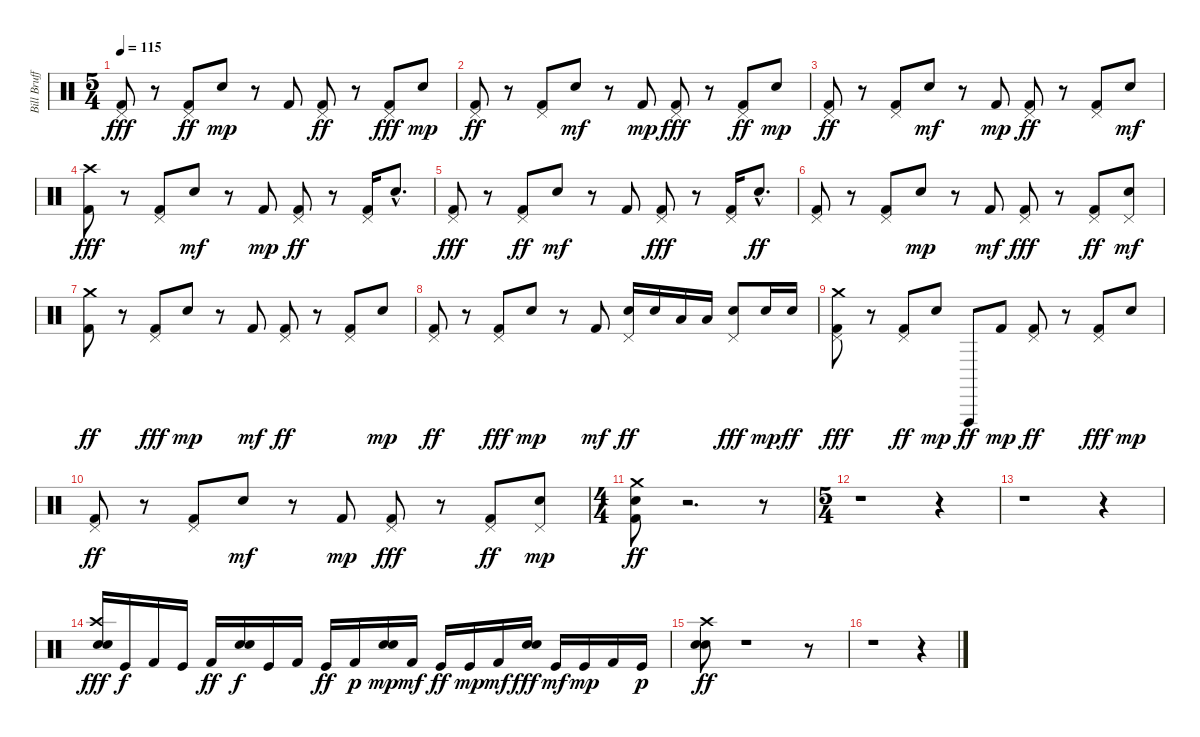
\track ("Bill Brufford Drums" "Bill Bruff") {instrument percussion}
\staff {score}
\articulation defaults
\ts (5 4)
\tempo 115
\clef neutral
\ks c
("Pedal Hi-Hat (hit)" "Kick (hit) 2").8{dy fff} r.8 ("Pedal Hi-Hat (hit)" "Kick (hit) 2").8{dy ff} "Electric Snare (hit)".8{dy mp} r.8 "Kick (hit) 2".8 ("Pedal Hi-Hat (hit)" "Kick (hit) 2").8{dy ff} r.8 ("Pedal Hi-Hat (hit)" "Kick (hit) 2").8{dy fff} "Electric Snare (hit)".8{dy mp} |
("Pedal Hi-Hat (hit)" "Kick (hit) 2").8{dy ff} r.8 ("Pedal Hi-Hat (hit)" "Kick (hit) 2").8 "Electric Snare (hit)".8{dy mf} r.8 "Kick (hit) 2".8{dy mp} ("Pedal Hi-Hat (hit)" "Kick (hit) 2").8{dy fff} r.8 ("Pedal Hi-Hat (hit)" "Kick (hit) 2").8{dy ff} "Electric Snare (hit)".8{dy mp} |
("Pedal Hi-Hat (hit)" "Kick (hit) 2").8{dy ff} r.8 ("Pedal Hi-Hat (hit)" "Kick (hit) 2").8 "Electric Snare (hit)".8{dy mf} r.8 "Kick (hit) 2".8{dy mp} ("Pedal Hi-Hat (hit)" "Kick (hit) 2").8{dy ff} r.8 ("Pedal Hi-Hat (hit)" "Kick (hit) 2").8 "Electric Snare (hit)".8{dy mf} |
("Crash high (hit)" "Kick (hit) 2").8{dy fff} r.8 ("Pedal Hi-Hat (hit)" "Kick (hit) 2").8 "Electric Snare (hit)".8{dy mf} r.8 "Kick (hit) 2".8{dy mp} ("Pedal Hi-Hat (hit)" "Kick (hit) 2").8{dy ff} r.8 ("Pedal Hi-Hat (hit)" "Kick (hit) 2").16 "Electric Snare (hit)"{hac}.8{d} |
("Pedal Hi-Hat (hit)" "Kick (hit) 2").8{dy fff} r.8 ("Pedal Hi-Hat (hit)" "Kick (hit) 2").8{dy ff} "Electric Snare (hit)".8{dy mf} r.8 "Kick (hit) 2".8 ("Pedal Hi-Hat (hit)" "Kick (hit) 2").8{dy fff} r.8 ("Pedal Hi-Hat (hit)" "Kick (hit) 2").16 "Electric Snare (hit)"{hac}.8{d dy ff} |
("Pedal Hi-Hat (hit)" "Kick (hit) 2").8 r.8 ("Pedal Hi-Hat (hit)" "Kick (hit) 2").8 "Electric Snare (hit)".8{dy mp} r.8 "Kick (hit) 2".8{dy mf} ("Pedal Hi-Hat (hit)" "Kick (hit) 2").8{dy fff} r.8 ("Pedal Hi-Hat (hit)" "Kick (hit) 2").8{dy ff} ("Pedal Hi-Hat (hit)" "Electric Snare (hit)").8{dy mf} |
("Kick (hit) 2" "Crash medium (hit)").8{dy ff} r.8 ("Pedal Hi-Hat (hit)" "Kick (hit) 2").8{dy fff} "Electric Snare (hit)".8{dy mp} r.8 "Kick (hit) 2".8{dy mf} ("Pedal Hi-Hat (hit)" "Kick (hit) 2").8{dy ff} r.8 ("Pedal Hi-Hat (hit)" "Kick (hit) 2").8 "Electric Snare (hit)".8{dy mp} |
("Pedal Hi-Hat (hit)" "Kick (hit) 2").8{dy ff} r.8 ("Pedal Hi-Hat (hit)" "Kick (hit) 2").8{dy fff} "Electric Snare (hit)".8{dy mp} r.8 "Kick (hit) 2".8{dy mf} ("Pedal Hi-Hat (hit)" "Electric Snare (hit)").16{dy ff} "Electric Snare (hit)".16 "Low Tom (hit)".16 "Low Tom (hit)".16 ("Pedal Hi-Hat (hit)" "Electric Snare (hit)").8{dy fff} "Electric Snare (hit)".16{dy mp} "Electric Snare (hit)".16{dy ff} |
("Kick (hit) 2" "Crash medium (hit)" "Pedal Hi-Hat (hit)").8{dy fff} r.8 ("Pedal Hi-Hat (hit)" "Kick (hit) 2").8{dy ff} "Electric Snare (hit)".8{dy mp} "Vibraslap (hit)".8{dy ff} "Kick (hit) 2".8{dy mp} ("Pedal Hi-Hat (hit)" "Kick (hit) 2").8{dy ff} r.8 ("Pedal Hi-Hat (hit)" "Kick (hit) 2").8{dy fff} "Electric Snare (hit)".8{dy mp} |
("Pedal Hi-Hat (hit)" "Kick (hit) 2").8{dy ff} r.8 ("Pedal Hi-Hat (hit)" "Kick (hit) 2").8 "Electric Snare (hit)".8{dy mf} r.8 "Kick (hit) 2".8{dy mp} ("Pedal Hi-Hat (hit)" "Kick (hit) 2").8{dy fff} r.8 ("Pedal Hi-Hat (hit)" "Kick (hit) 2").8{dy ff} ("Pedal Hi-Hat (hit)" "Electric Snare (hit)").8{dy mp} |
\ts (4 4)
("Electric Snare (hit)" "Kick (hit) 2" "Crash medium (hit)").8{dy ff} r.2{d} r.8 |
\ts (5 4)
r.1 r.4 |
r.1 r.4 |
("Crash high (hit)" "Snare (hit) 2" "Electric Snare (hit)").16{dy fff} "Kick (hit)".16{dy f} "Kick (hit) 2".16 "Kick (hit)".16 "Kick (hit) 2".16{dy ff} ("Electric Snare (hit)" "Snare (hit) 2").16{dy f} "Kick (hit)".16 "Kick (hit) 2".16 "Kick (hit)".16{dy ff} "Kick (hit) 2".16{dy p} ("Electric Snare (hit)" "Snare (hit) 2").16{dy mp} "Kick (hit) 2".16{dy mf} "Kick (hit)".16{dy ff} "Kick (hit)".16{dy mp} "Kick (hit) 2".16{dy mf} ("Snare (hit) 2" "Electric Snare (hit)").16{dy fff} "Kick (hit)".16{dy mf} "Kick (hit)".16{dy mp} "Kick (hit) 2".16 "Kick (hit)".16{dy p} |
("Crash high (hit)" "Electric Snare (hit)" "Electric Snare (hit)").8{dy ff} r.1 r.8 |
r.1 r.4
